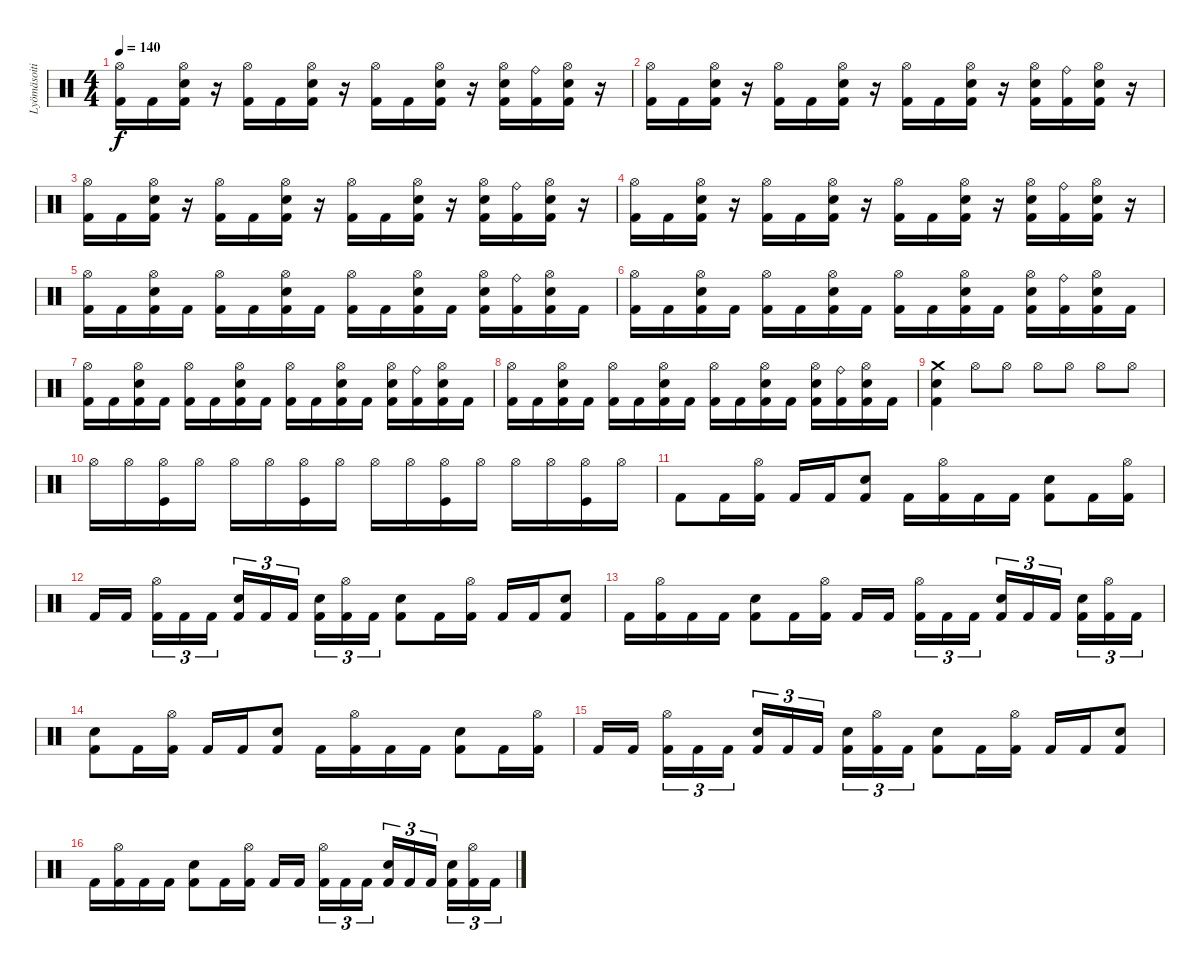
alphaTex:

\track ("Lyömäsoitin" "Lyömäsoiti") {instrument percussion}
\staff {score}
\articulation defaults
\ts (4 4)
\tempo 140
\clef neutral
\ks c
("Hi-Hat (open)" "Kick (hit) 2").16{dy f} "Kick (hit) 2".16 ("Hi-Hat (open)" "Electric Snare (hit)" "Kick (hit) 2").16 r.16 ("Hi-Hat (open)" "Kick (hit) 2").16 "Kick (hit) 2".16 ("Hi-Hat (open)" "Electric Snare (hit)" "Kick (hit) 2").16 r.16 ("Hi-Hat (open)" "Kick (hit) 2").16 "Kick (hit) 2".16 ("Hi-Hat (open)" "Electric Snare (hit)" "Kick (hit) 2").16 r.16 ("Hi-Hat (open)" "Electric Snare (hit)" "Kick (hit) 2").16 ("Ride (bell)" "Kick (hit) 2").16 ("Hi-Hat (open)" "Electric Snare (hit)" "Kick (hit) 2").16 r.16 |
("Hi-Hat (open)" "Kick (hit) 2").16 "Kick (hit) 2".16 ("Hi-Hat (open)" "Electric Snare (hit)" "Kick (hit) 2").16 r.16 ("Hi-Hat (open)" "Kick (hit) 2").16 "Kick (hit) 2".16 ("Hi-Hat (open)" "Electric Snare (hit)" "Kick (hit) 2").16 r.16 ("Hi-Hat (open)" "Kick (hit) 2").16 "Kick (hit) 2".16 ("Hi-Hat (open)" "Electric Snare (hit)" "Kick (hit) 2").16 r.16 ("Hi-Hat (open)" "Electric Snare (hit)" "Kick (hit) 2").16 ("Ride (bell)" "Kick (hit) 2").16 ("Hi-Hat (open)" "Electric Snare (hit)" "Kick (hit) 2").16 r.16 |
("Hi-Hat (open)" "Kick (hit) 2").16 "Kick (hit) 2".16 ("Hi-Hat (open)" "Electric Snare (hit)" "Kick (hit) 2").16 r.16 ("Hi-Hat (open)" "Kick (hit) 2").16 "Kick (hit) 2".16 ("Hi-Hat (open)" "Electric Snare (hit)" "Kick (hit) 2").16 r.16 ("Hi-Hat (open)" "Kick (hit) 2").16 "Kick (hit) 2".16 ("Hi-Hat (open)" "Electric Snare (hit)" "Kick (hit) 2").16 r.16 ("Hi-Hat (open)" "Electric Snare (hit)" "Kick (hit) 2").16 ("Ride (bell)" "Kick (hit) 2").16 ("Hi-Hat (open)" "Electric Snare (hit)" "Kick (hit) 2").16 r.16 |
("Hi-Hat (open)" "Kick (hit) 2").16 "Kick (hit) 2".16 ("Hi-Hat (open)" "Electric Snare (hit)" "Kick (hit) 2").16 r.16 ("Hi-Hat (open)" "Kick (hit) 2").16 "Kick (hit) 2".16 ("Hi-Hat (open)" "Electric Snare (hit)" "Kick (hit) 2").16 r.16 ("Hi-Hat (open)" "Kick (hit) 2").16 "Kick (hit) 2".16 ("Hi-Hat (open)" "Electric Snare (hit)" "Kick (hit) 2").16 r.16 ("Hi-Hat (open)" "Electric Snare (hit)" "Kick (hit) 2").16 ("Ride (bell)" "Kick (hit) 2").16 ("Hi-Hat (open)" "Electric Snare (hit)" "Kick (hit) 2").16 r.16 |
("Hi-Hat (open)" "Kick (hit) 2").16 "Kick (hit) 2".16 ("Hi-Hat (open)" "Electric Snare (hit)" "Kick (hit) 2").16 "Kick (hit) 2".16 ("Hi-Hat (open)" "Kick (hit) 2").16 "Kick (hit) 2".16 ("Hi-Hat (open)" "Electric Snare (hit)" "Kick (hit) 2").16 "Kick (hit) 2".16 ("Hi-Hat (open)" "Kick (hit) 2").16 "Kick (hit) 2".16 ("Hi-Hat (open)" "Electric Snare (hit)" "Kick (hit) 2").16 "Kick (hit) 2".16 ("Hi-Hat (open)" "Electric Snare (hit)" "Kick (hit) 2").16 ("Ride (bell)" "Kick (hit) 2").16 ("Hi-Hat (open)" "Electric Snare (hit)" "Kick (hit) 2").16 "Kick (hit) 2".16 |
("Hi-Hat (open)" "Kick (hit) 2").16 "Kick (hit) 2".16 ("Hi-Hat (open)" "Electric Snare (hit)" "Kick (hit) 2").16 "Kick (hit) 2".16 ("Hi-Hat (open)" "Kick (hit) 2").16 "Kick (hit) 2".16 ("Hi-Hat (open)" "Electric Snare (hit)" "Kick (hit) 2").16 "Kick (hit) 2".16 ("Hi-Hat (open)" "Kick (hit) 2").16 "Kick (hit) 2".16 ("Hi-Hat (open)" "Electric Snare (hit)" "Kick (hit) 2").16 "Kick (hit) 2".16 ("Hi-Hat (open)" "Electric Snare (hit)" "Kick (hit) 2").16 ("Ride (bell)" "Kick (hit) 2").16 ("Hi-Hat (open)" "Electric Snare (hit)" "Kick (hit) 2").16 "Kick (hit) 2".16 |
("Hi-Hat (open)" "Kick (hit) 2").16 "Kick (hit) 2".16 ("Hi-Hat (open)" "Electric Snare (hit)" "Kick (hit) 2").16 "Kick (hit) 2".16 ("Hi-Hat (open)" "Kick (hit) 2").16 "Kick (hit) 2".16 ("Hi-Hat (open)" "Electric Snare (hit)" "Kick (hit) 2").16 "Kick (hit) 2".16 ("Hi-Hat (open)" "Kick (hit) 2").16 "Kick (hit) 2".16 ("Hi-Hat (open)" "Electric Snare (hit)" "Kick (hit) 2").16 "Kick (hit) 2".16 ("Hi-Hat (open)" "Electric Snare (hit)" "Kick (hit) 2").16 ("Ride (bell)" "Kick (hit) 2").16 ("Hi-Hat (open)" "Electric Snare (hit)" "Kick (hit) 2").16 "Kick (hit) 2".16 |
("Hi-Hat (open)" "Kick (hit) 2").16 "Kick (hit) 2".16 ("Hi-Hat (open)" "Electric Snare (hit)" "Kick (hit) 2").16 "Kick (hit) 2".16 ("Hi-Hat (open)" "Kick (hit) 2").16 "Kick (hit) 2".16 ("Hi-Hat (open)" "Electric Snare (hit)" "Kick (hit) 2").16 "Kick (hit) 2".16 ("Hi-Hat (open)" "Kick (hit) 2").16 "Kick (hit) 2".16 ("Hi-Hat (open)" "Electric Snare (hit)" "Kick (hit) 2").16 "Kick (hit) 2".16 ("Hi-Hat (open)" "Electric Snare (hit)" "Kick (hit) 2").16 ("Ride (bell)" "Kick (hit) 2").16 ("Hi-Hat (open)" "Electric Snare (hit)" "Kick (hit) 2").16 "Kick (hit) 2".16 |
("Crash medium (hit)" "Electric Snare (hit)" "Kick (hit) 2").4 "Hi-Hat (open)".8 "Hi-Hat (open)".8 "Hi-Hat (open)".8 "Hi-Hat (open)".8 "Hi-Hat (open)".8 "Hi-Hat (open)".8 |
"Hi-Hat (open)".16 "Hi-Hat (open)".16 ("Hi-Hat (open)" "Kick (hit)").16 "Hi-Hat (open)".16 "Hi-Hat (open)".16 "Hi-Hat (open)".16 ("Hi-Hat (open)" "Kick (hit)").16 "Hi-Hat (open)".16 "Hi-Hat (open)".16 "Hi-Hat (open)".16 ("Hi-Hat (open)" "Kick (hit)").16 "Hi-Hat (open)".16 "Hi-Hat (open)".16 "Hi-Hat (open)".16 ("Hi-Hat (open)" "Kick (hit)").16 "Hi-Hat (open)".16 |
"Kick (hit) 2".8 "Kick (hit) 2".16 ("Hi-Hat (open)" "Kick (hit) 2").16 "Kick (hit) 2".16 "Kick (hit) 2".16 ("Electric Snare (hit)" "Kick (hit) 2").8 "Kick (hit) 2".16 ("Hi-Hat (open)" "Kick (hit) 2").16 "Kick (hit) 2".16 "Kick (hit) 2".16 ("Electric Snare (hit)" "Kick (hit) 2").8 "Kick (hit) 2".16 ("Hi-Hat (open)" "Kick (hit) 2").16 |
"Kick (hit) 2".16 "Kick (hit) 2".16{beam splitsecondary} ("Hi-Hat (open)" "Kick (hit) 2").16{tu (3 2)} "Kick (hit) 2".16{tu (3 2)} "Kick (hit) 2".16{tu (3 2)} ("Electric Snare (hit)" "Kick (hit) 2").16{tu (3 2)} "Kick (hit) 2".16{tu (3 2)} "Kick (hit) 2".16{tu (3 2) beam splitsecondary} ("Electric Snare (hit)" "Kick (hit) 2").16{tu (3 2)} ("Hi-Hat (open)" "Kick (hit) 2").16{tu (3 2)} "Kick (hit) 2".16{tu (3 2)} ("Electric Snare (hit)" "Kick (hit) 2").8 "Kick (hit) 2".16 ("Hi-Hat (open)" "Kick (hit) 2").16 "Kick (hit) 2".16 "Kick (hit) 2".16 ("Electric Snare (hit)" "Kick (hit) 2").8 |
"Kick (hit) 2".16 ("Hi-Hat (open)" "Kick (hit) 2").16 "Kick (hit) 2".16 "Kick (hit) 2".16 ("Electric Snare (hit)" "Kick (hit) 2").8 "Kick (hit) 2".16 ("Hi-Hat (open)" "Kick (hit) 2").16 "Kick (hit) 2".16 "Kick (hit) 2".16{beam splitsecondary} ("Hi-Hat (open)" "Kick (hit) 2").16{tu (3 2)} "Kick (hit) 2".16{tu (3 2)} "Kick (hit) 2".16{tu (3 2)} ("Electric Snare (hit)" "Kick (hit) 2").16{tu (3 2)} "Kick (hit) 2".16{tu (3 2)} "Kick (hit) 2".16{tu (3 2) beam splitsecondary} ("Electric Snare (hit)" "Kick (hit) 2").16{tu (3 2)} ("Hi-Hat (open)" "Kick (hit) 2").16{tu (3 2)} "Kick (hit) 2".16{tu (3 2)} |
("Electric Snare (hit)" "Kick (hit) 2").8 "Kick (hit) 2".16 ("Hi-Hat (open)" "Kick (hit) 2").16 "Kick (hit) 2".16 "Kick (hit) 2".16 ("Electric Snare (hit)" "Kick (hit) 2").8 "Kick (hit) 2".16 ("Hi-Hat (open)" "Kick (hit) 2").16 "Kick (hit) 2".16 "Kick (hit) 2".16 ("Electric Snare (hit)" "Kick (hit) 2").8 "Kick (hit) 2".16 ("Hi-Hat (open)" "Kick (hit) 2").16 |
"Kick (hit) 2".16 "Kick (hit) 2".16{beam splitsecondary} ("Hi-Hat (open)" "Kick (hit) 2").16{tu (3 2)} "Kick (hit) 2".16{tu (3 2)} "Kick (hit) 2".16{tu (3 2)} ("Electric Snare (hit)" "Kick (hit) 2").16{tu (3 2)} "Kick (hit) 2".16{tu (3 2)} "Kick (hit) 2".16{tu (3 2) beam splitsecondary} ("Electric Snare (hit)" "Kick (hit) 2").16{tu (3 2)} ("Hi-Hat (open)" "Kick (hit) 2").16{tu (3 2)} "Kick (hit) 2".16{tu (3 2)} ("Electric Snare (hit)" "Kick (hit) 2").8 "Kick (hit) 2".16 ("Hi-Hat (open)" "Kick (hit) 2").16 "Kick (hit) 2".16 "Kick (hit) 2".16 ("Electric Snare (hit)" "Kick (hit) 2").8 |
"Kick (hit) 2".16 ("Hi-Hat (open)" "Kick (hit) 2").16 "Kick (hit) 2".16 "Kick (hit) 2".16 ("Electric Snare (hit)" "Kick (hit) 2").8 "Kick (hit) 2".16 ("Hi-Hat (open)" "Kick (hit) 2").16 "Kick (hit) 2".16 "Kick (hit) 2".16{beam splitsecondary} ("Hi-Hat (open)" "Kick (hit) 2").16{tu (3 2)} "Kick (hit) 2".16{tu (3 2)} "Kick (hit) 2".16{tu (3 2)} ("Electric Snare (hit)" "Kick (hit) 2").16{tu (3 2)} "Kick (hit) 2".16{tu (3 2)} "Kick (hit) 2".16{tu (3 2) beam splitsecondary} ("Electric Snare (hit)" "Kick (hit) 2").16{tu (3 2)} ("Hi-Hat (open)" "Kick (hit) 2").16{tu (3 2)} "Kick (hit) 2".16{tu (3 2)}
